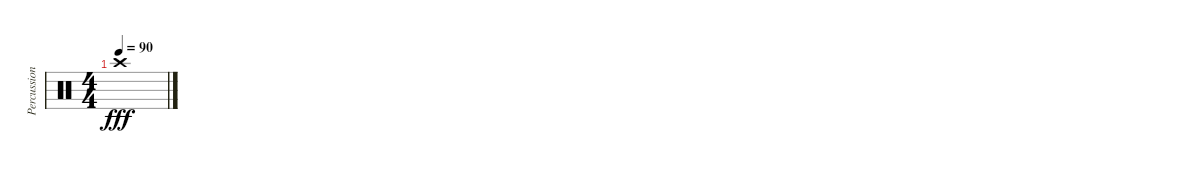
\track ("Percussion" "Percussion") {instrument percussion}
\staff {score}
\articulation defaults
\ts (4 4)
\tempo 90
\clef neutral
\ks c "Crash high (hit)".1{dy fff}
